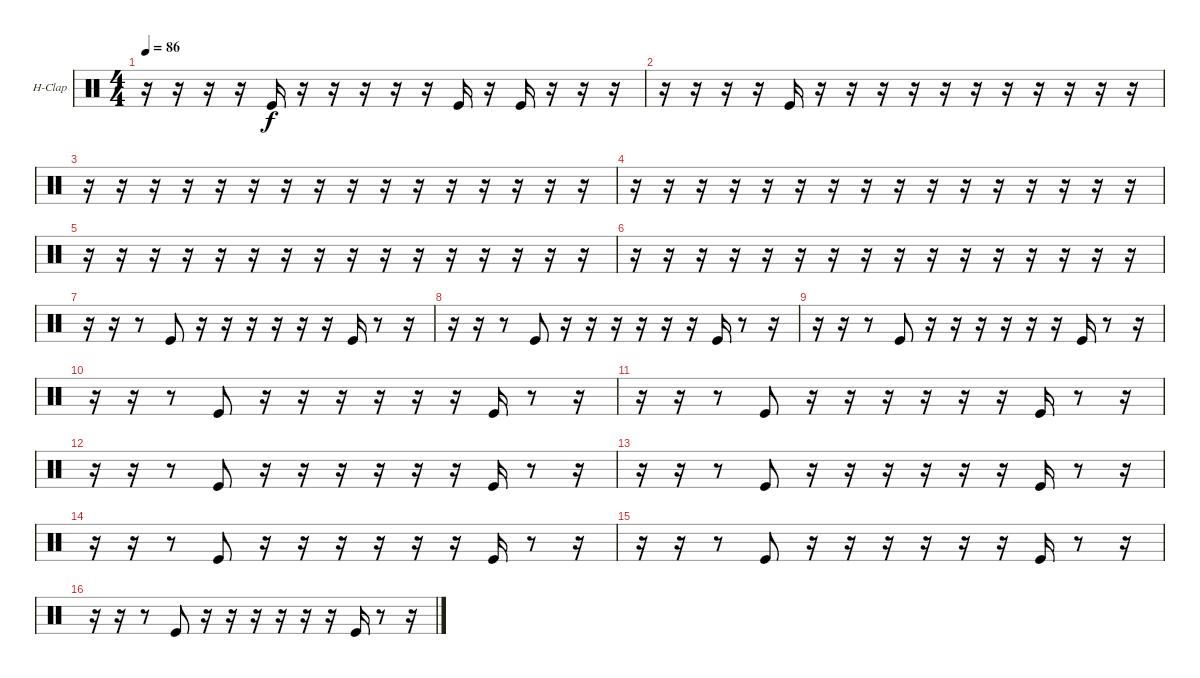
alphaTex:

\defaultSystemsLayout 4
\bracketExtendMode groupsimilarinstruments
\firstSystemTrackNameOrientation horizontal
\otherSystemsTrackNameOrientation horizontal
\track ("Hand Clap" "H-Clap") {instrument percussion}
\staff {score}
\articulation defaults
\ts (4 4)
\tempo 86
\clef neutral
\scale
0.472222
\ks c
r.16{dy f} r.16 r.16 r.16 "Kick (hit)".16 r.16 r.16 r.16 r.16 r.16 "Kick (hit)".16 r.16 "Kick (hit)".16 r.16 r.16 r.16 |
\scale
0.263889 r.16 r.16 r.16 r.16 "Kick (hit)".16 r.16 r.16 r.16 r.16 r.16 r.16 r.16 r.16 r.16 r.16 r.16 |
\scale
0.263889 r.16 r.16 r.16 r.16 r.16 r.16 r.16 r.16 r.16 r.16 r.16 r.16 r.16 r.16 r.16 r.16 |
\scale
0.333333 r.16 r.16 r.16 r.16 r.16 r.16 r.16 r.16 r.16 r.16 r.16 r.16 r.16 r.16 r.16 r.16 |
\scale
0.333333 r.16 r.16 r.16 r.16 r.16 r.16 r.16 r.16 r.16 r.16 r.16 r.16 r.16 r.16 r.16 r.16 |
\scale
0.333333 r.16 r.16 r.16 r.16 r.16 r.16 r.16 r.16 r.16 r.16 r.16 r.16 r.16 r.16 r.16 r.16 |
\scale
0.333333 r.16 r.16 r.8 "Kick (hit)".8 r.16 r.16 r.16 r.16 r.16 r.16 "Kick (hit)".16 r.8 r.16 |
\scale
0.333333 r.16 r.16 r.8 "Kick (hit)".8 r.16 r.16 r.16 r.16 r.16 r.16 "Kick (hit)".16 r.8 r.16 |
\scale
0.333333 r.16 r.16 r.8 "Kick (hit)".8 r.16 r.16 r.16 r.16 r.16 r.16 "Kick (hit)".16 r.8 r.16 |
\scale
0.333333 r.16 r.16 r.8 "Kick (hit)".8 r.16 r.16 r.16 r.16 r.16 r.16 "Kick (hit)".16 r.8 r.16 |
\scale
0.333333 r.16 r.16 r.8 "Kick (hit)".8 r.16 r.16 r.16 r.16 r.16 r.16 "Kick (hit)".16 r.8 r.16 |
\scale
0.333333 r.16 r.16 r.8 "Kick (hit)".8 r.16 r.16 r.16 r.16 r.16 r.16 "Kick (hit)".16 r.8 r.16 |
\scale
0.333333 r.16 r.16 r.8 "Kick (hit)".8 r.16 r.16 r.16 r.16 r.16 r.16 "Kick (hit)".16 r.8 r.16 |
\scale
0.333333 r.16 r.16 r.8 "Kick (hit)".8 r.16 r.16 r.16 r.16 r.16 r.16 "Kick (hit)".16 r.8 r.16 |
\scale
0.333333 r.16 r.16 r.8 "Kick (hit)".8 r.16 r.16 r.16 r.16 r.16 r.16 "Kick (hit)".16 r.8 r.16 |
\scale
0.333333 r.16 r.16 r.8 "Kick (hit)".8 r.16 r.16 r.16 r.16 r.16 r.16 "Kick (hit)".16 r.8 r.16
